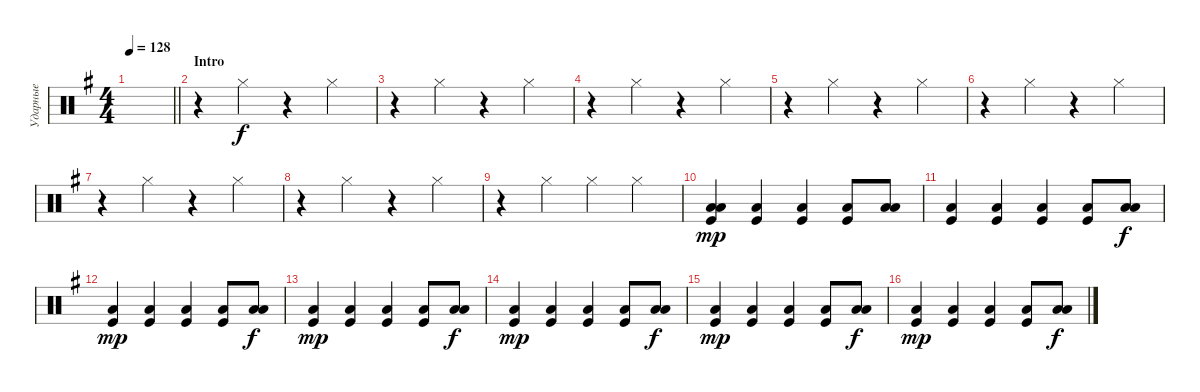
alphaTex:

\track ("Ударные" "Ударные") {instrument percussion}
\staff {score}
\articulation defaults
\ts (4 4)
\tempo 128
\clef neutral
\barLineRight lightlight
\ks eminor
|
\section ("" "Intro")
r.4 "Hi-Hat (closed)".4 r.4 "Hi-Hat (closed)".4 |
r.4 "Hi-Hat (closed)".4 r.4 "Hi-Hat (closed)".4 |
r.4 "Hi-Hat (closed)".4 r.4 "Hi-Hat (closed)".4 |
r.4 "Hi-Hat (closed)".4 r.4 "Hi-Hat (closed)".4 |
r.4 "Hi-Hat (closed)".4 r.4 "Hi-Hat (closed)".4 |
r.4 "Hi-Hat (closed)".4 r.4 "Hi-Hat (closed)".4 |
r.4 "Hi-Hat (closed)".4 r.4 "Hi-Hat (closed)".4 |
r.4 "Hi-Hat (closed)".4 "Hi-Hat (closed)".4 "Hi-Hat (closed)".4 |
("Low Floor Tom (hit)" "Low Tom (hit)" "Kick (hit)").4{bd 120 dy mp} ("Kick (hit)" "Low Floor Tom (hit)").4{bd 240} ("Kick (hit)" "Low Floor Tom (hit)").4{bd 240} ("Kick (hit)" "Low Floor Tom (hit)").8{bd 240} ("Low Tom (hit)" "Low Floor Tom (hit)").8{bd 240} |
("Low Floor Tom (hit)" "Kick (hit)").4{bd 120} ("Kick (hit)" "Low Floor Tom (hit)").4{bd 240} ("Kick (hit)" "Low Floor Tom (hit)").4{bd 240} ("Kick (hit)" "Low Floor Tom (hit)").8{bd 240} ("Low Tom (hit)" "Low Floor Tom (hit)").8{bd 240 dy f} |
("Low Floor Tom (hit)" "Kick (hit)").4{bd 120 dy mp} ("Kick (hit)" "Low Floor Tom (hit)").4{bd 240} ("Kick (hit)" "Low Floor Tom (hit)").4{bd 240} ("Kick (hit)" "Low Floor Tom (hit)").8{bd 240} ("Low Tom (hit)" "Low Floor Tom (hit)").8{bd 240 dy f} |
("Low Floor Tom (hit)" "Kick (hit)").4{bd 120 dy mp} ("Kick (hit)" "Low Floor Tom (hit)").4{bd 240} ("Kick (hit)" "Low Floor Tom (hit)").4{bd 240} ("Kick (hit)" "Low Floor Tom (hit)").8{bd 240} ("Low Tom (hit)" "Low Floor Tom (hit)").8{bd 240 dy f} |
("Low Floor Tom (hit)" "Kick (hit)").4{bd 120 dy mp} ("Kick (hit)" "Low Floor Tom (hit)").4{bd 240} ("Kick (hit)" "Low Floor Tom (hit)").4{bd 240} ("Kick (hit)" "Low Floor Tom (hit)").8{bd 240} ("Low Tom (hit)" "Low Floor Tom (hit)").8{bd 240 dy f} |
("Low Floor Tom (hit)" "Kick (hit)").4{bd 120 dy mp} ("Kick (hit)" "Low Floor Tom (hit)").4{bd 240} ("Kick (hit)" "Low Floor Tom (hit)").4{bd 240} ("Kick (hit)" "Low Floor Tom (hit)").8{bd 240} ("Low Tom (hit)" "Low Floor Tom (hit)").8{bd 240 dy f} |
("Low Floor Tom (hit)" "Kick (hit)").4{bd 120 dy mp} ("Kick (hit)" "Low Floor Tom (hit)").4{bd 240} ("Kick (hit)" "Low Floor Tom (hit)").4{bd 240} ("Kick (hit)" "Low Floor Tom (hit)").8{bd 240} ("Low Tom (hit)" "Low Floor Tom (hit)").8{bd 240 dy f}
